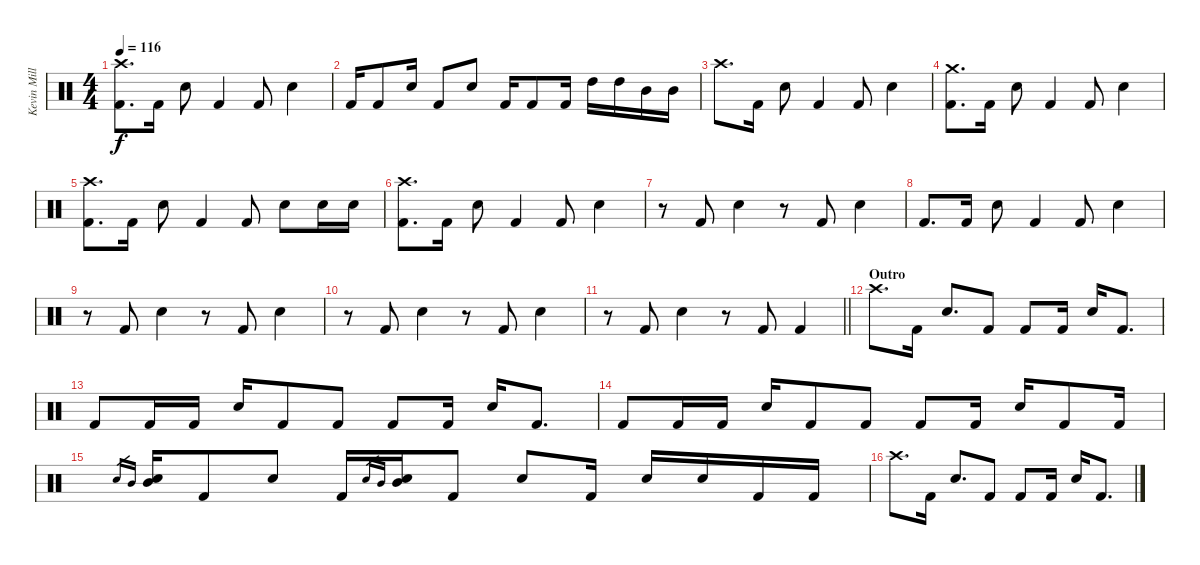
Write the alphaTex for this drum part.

\track ("Kevin Miller (Drums)" "Kevin Mill") {instrument percussion}
\staff {score}
\articulation defaults
\ts (4 4)
\tempo 116
\clef neutral
\ks c
("Crash high (hit)" "Kick (hit) 2").8{d dy f} "Kick (hit) 2".16 "Electric Snare (hit)".8 "Kick (hit) 2".4 "Kick (hit) 2".8 "Electric Snare (hit)".4 |
"Kick (hit) 2".16 "Kick (hit) 2".8 "Electric Snare (hit)".16 "Kick (hit) 2".8 "Electric Snare (hit)".8 "Kick (hit) 2".16 "Kick (hit) 2".8 "Kick (hit) 2".16 "High Tom (hit)".16 "High Tom (hit)".16 "Mid Tom (hit)".16 "Mid Tom (hit)".16 |
"Crash high (hit)".8{d} "Kick (hit) 2".16 "Electric Snare (hit)".8 "Kick (hit) 2".4 "Kick (hit) 2".8 "Electric Snare (hit)".4 |
("Crash medium (hit)" "Kick (hit) 2").8{d} "Kick (hit) 2".16 "Electric Snare (hit)".8 "Kick (hit) 2".4 "Kick (hit) 2".8 "Electric Snare (hit)".4 |
("Crash high (hit)" "Kick (hit) 2").8{d} "Kick (hit) 2".16 "Electric Snare (hit)".8 "Kick (hit) 2".4 "Kick (hit) 2".8 "Electric Snare (hit)".8 "Electric Snare (hit)".16 "Electric Snare (hit)".16 |
("Crash high (hit)" "Kick (hit) 2").8{d} "Kick (hit) 2".16 "Electric Snare (hit)".8 "Kick (hit) 2".4 "Kick (hit) 2".8 "Electric Snare (hit)".4 |
r.8 "Kick (hit) 2".8 "Electric Snare (hit)".4 r.8 "Kick (hit) 2".8 "Electric Snare (hit)".4 |
"Kick (hit) 2".8{d} "Kick (hit) 2".16 "Electric Snare (hit)".8 "Kick (hit) 2".4 "Kick (hit) 2".8 "Electric Snare (hit)".4 |
r.8 "Kick (hit) 2".8 "Electric Snare (hit)".4 r.8 "Kick (hit) 2".8 "Electric Snare (hit)".4 |
r.8 "Kick (hit) 2".8 "Electric Snare (hit)".4 r.8 "Kick (hit) 2".8 "Electric Snare (hit)".4 |
\barLineRight lightlight
r.8 "Kick (hit) 2".8 "Electric Snare (hit)".4 r.8 "Kick (hit) 2".8 "Kick (hit) 2".4 |
\section ("" "Outro")
"Crash high (hit)".8{d} "Kick (hit) 2".16 "Electric Snare (hit)".8{d} "Kick (hit) 2".8 "Kick (hit) 2".8 "Kick (hit) 2".16 "Electric Snare (hit)".16 "Kick (hit) 2".8{d} |
"Kick (hit) 2".8 "Kick (hit) 2".16 "Kick (hit) 2".16 "Electric Snare (hit)".16 "Kick (hit) 2".8 "Kick (hit) 2".8 "Kick (hit) 2".8 "Kick (hit) 2".16 "Electric Snare (hit)".16 "Kick (hit) 2".8{d} |
"Kick (hit) 2".8 "Kick (hit) 2".16 "Kick (hit) 2".16 "Electric Snare (hit)".16 "Kick (hit) 2".8 "Kick (hit) 2".8 "Kick (hit) 2".8 "Kick (hit) 2".16 "Electric Snare (hit)".16 "Kick (hit) 2".8 "Kick (hit) 2".16 |
"Electric Snare (hit)".16{gr} "Mid Tom (hit)".16{gr} ("Electric Snare (hit)" "Mid Tom (hit)").16 "Kick (hit) 2".8 "Electric Snare (hit)".8 "Kick (hit) 2".16 "Electric Snare (hit)".16{gr} "Mid Tom (hit)".16{gr} ("Electric Snare (hit)" "Mid Tom (hit)").16 "Kick (hit) 2".8 "Electric Snare (hit)".8 "Kick (hit) 2".16 "Electric Snare (hit)".16 "Electric Snare (hit)".16 "Kick (hit) 2".16 "Kick (hit) 2".16 |
"Crash high (hit)".8{d} "Kick (hit) 2".16 "Electric Snare (hit)".8{d} "Kick (hit) 2".8 "Kick (hit) 2".8 "Kick (hit) 2".16 "Electric Snare (hit)".16 "Kick (hit) 2".8{d}
